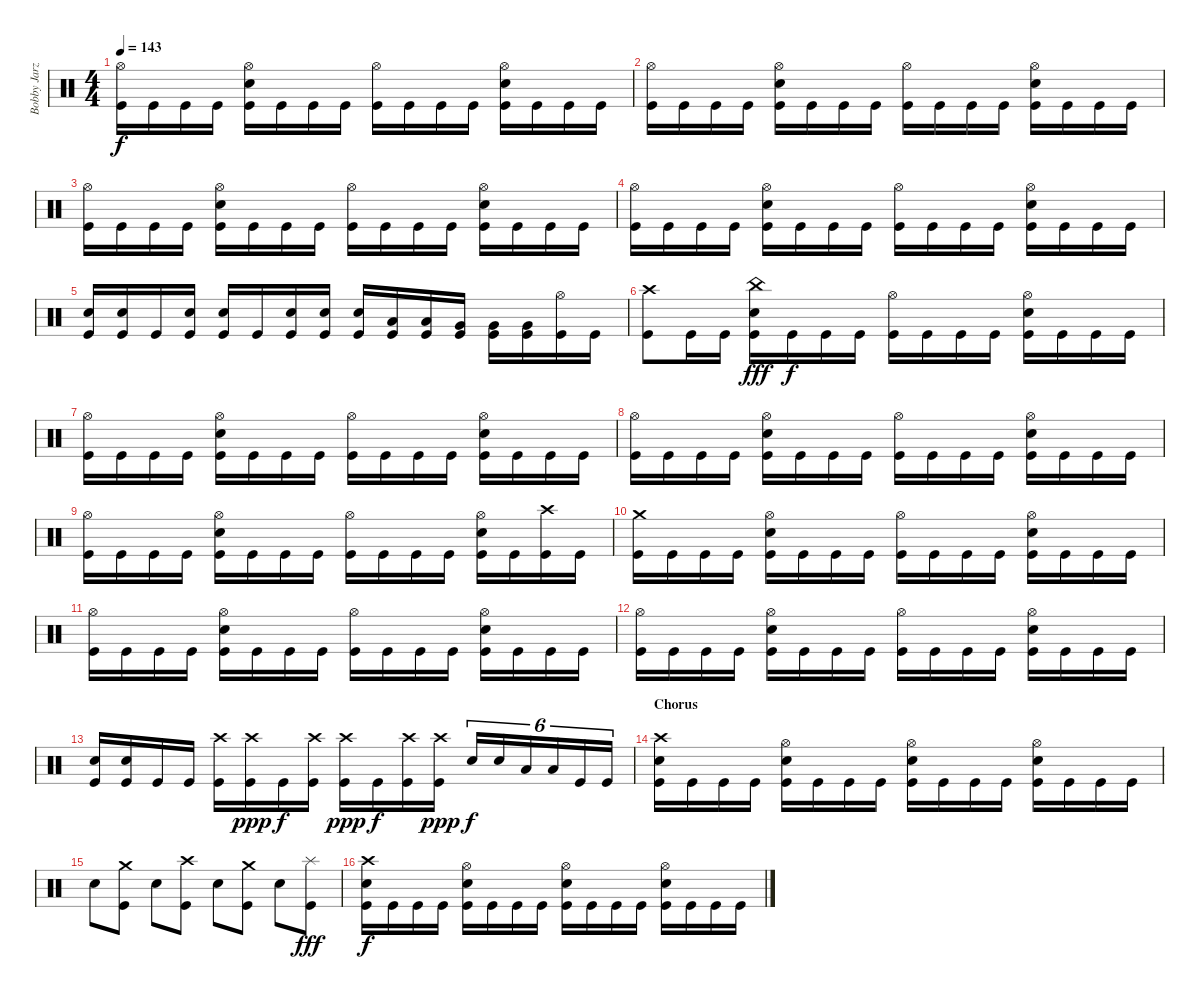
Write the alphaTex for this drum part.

\track ("Bobby Jarzombek" "Bobby Jarz") {instrument percussion}
\staff {score}
\articulation defaults
\ts (4 4)
\tempo 143
\clef neutral
\ks c
("Hi-Hat (open)" "Kick (hit)").16{dy f} "Kick (hit)".16 "Kick (hit)".16 "Kick (hit)".16 ("Hi-Hat (open)" "Electric Snare (hit)" "Kick (hit)").16 "Kick (hit)".16 "Kick (hit)".16 "Kick (hit)".16 ("Hi-Hat (open)" "Kick (hit)").16 "Kick (hit)".16 "Kick (hit)".16 "Kick (hit)".16 ("Hi-Hat (open)" "Electric Snare (hit)" "Kick (hit)").16 "Kick (hit)".16 "Kick (hit)".16 "Kick (hit)".16 |
("Hi-Hat (open)" "Kick (hit)").16 "Kick (hit)".16 "Kick (hit)".16 "Kick (hit)".16 ("Hi-Hat (open)" "Electric Snare (hit)" "Kick (hit)").16 "Kick (hit)".16 "Kick (hit)".16 "Kick (hit)".16 ("Hi-Hat (open)" "Kick (hit)").16 "Kick (hit)".16 "Kick (hit)".16 "Kick (hit)".16 ("Hi-Hat (open)" "Electric Snare (hit)" "Kick (hit)").16 "Kick (hit)".16 "Kick (hit)".16 "Kick (hit)".16 |
("Hi-Hat (open)" "Kick (hit)").16 "Kick (hit)".16 "Kick (hit)".16 "Kick (hit)".16 ("Hi-Hat (open)" "Electric Snare (hit)" "Kick (hit)").16 "Kick (hit)".16 "Kick (hit)".16 "Kick (hit)".16 ("Hi-Hat (open)" "Kick (hit)").16 "Kick (hit)".16 "Kick (hit)".16 "Kick (hit)".16 ("Hi-Hat (open)" "Electric Snare (hit)" "Kick (hit)").16 "Kick (hit)".16 "Kick (hit)".16 "Kick (hit)".16 |
("Hi-Hat (open)" "Kick (hit)").16 "Kick (hit)".16 "Kick (hit)".16 "Kick (hit)".16 ("Hi-Hat (open)" "Electric Snare (hit)" "Kick (hit)").16 "Kick (hit)".16 "Kick (hit)".16 "Kick (hit)".16 ("Hi-Hat (open)" "Kick (hit)").16 "Kick (hit)".16 "Kick (hit)".16 "Kick (hit)".16 ("Hi-Hat (open)" "Electric Snare (hit)" "Kick (hit)").16 "Kick (hit)".16 "Kick (hit)".16 "Kick (hit)".16 |
("Electric Snare (hit)" "Kick (hit)").16 ("Electric Snare (hit)" "Kick (hit)").16 "Kick (hit)".16 ("Electric Snare (hit)" "Kick (hit)").16 ("Electric Snare (hit)" "Kick (hit)").16 "Kick (hit)".16 ("Electric Snare (hit)" "Kick (hit)").16 ("Electric Snare (hit)" "Kick (hit)").16 ("Electric Snare (hit)" "Kick (hit)").16 ("Low Tom (hit)" "Kick (hit)").16 ("Low Tom (hit)" "Kick (hit)").16 ("Very Low Tom (hit)" "Kick (hit)").16 ("Very Low Tom (hit)" "Kick (hit)").16 ("Very Low Tom (hit)" "Kick (hit)").16 ("Hi-Hat (open)" "Kick (hit)").16 "Kick (hit)".16 |
("Crash high (hit)" "Kick (hit)").8 "Kick (hit)".16 "Kick (hit)".16 ("China (hit)" "Electric Snare (hit)" "Kick (hit)").16{dy fff} "Kick (hit)".16{dy f} "Kick (hit)".16 "Kick (hit)".16 ("Hi-Hat (open)" "Kick (hit)").16 "Kick (hit)".16 "Kick (hit)".16 "Kick (hit)".16 ("Hi-Hat (open)" "Electric Snare (hit)" "Kick (hit)").16 "Kick (hit)".16 "Kick (hit)".16 "Kick (hit)".16 |
("Hi-Hat (open)" "Kick (hit)").16 "Kick (hit)".16 "Kick (hit)".16 "Kick (hit)".16 ("Hi-Hat (open)" "Electric Snare (hit)" "Kick (hit)").16 "Kick (hit)".16 "Kick (hit)".16 "Kick (hit)".16 ("Hi-Hat (open)" "Kick (hit)").16 "Kick (hit)".16 "Kick (hit)".16 "Kick (hit)".16 ("Hi-Hat (open)" "Electric Snare (hit)" "Kick (hit)").16 "Kick (hit)".16 "Kick (hit)".16 "Kick (hit)".16 |
("Hi-Hat (open)" "Kick (hit)").16 "Kick (hit)".16 "Kick (hit)".16 "Kick (hit)".16 ("Hi-Hat (open)" "Electric Snare (hit)" "Kick (hit)").16 "Kick (hit)".16 "Kick (hit)".16 "Kick (hit)".16 ("Hi-Hat (open)" "Kick (hit)").16 "Kick (hit)".16 "Kick (hit)".16 "Kick (hit)".16 ("Hi-Hat (open)" "Electric Snare (hit)" "Kick (hit)").16 "Kick (hit)".16 "Kick (hit)".16 "Kick (hit)".16 |
("Hi-Hat (open)" "Kick (hit)").16 "Kick (hit)".16 "Kick (hit)".16 "Kick (hit)".16 ("Hi-Hat (open)" "Electric Snare (hit)" "Kick (hit)").16 "Kick (hit)".16 "Kick (hit)".16 "Kick (hit)".16 ("Hi-Hat (open)" "Kick (hit)").16 "Kick (hit)".16 "Kick (hit)".16 "Kick (hit)".16 ("Hi-Hat (open)" "Electric Snare (hit)" "Kick (hit)").16 "Kick (hit)".16 ("Crash high (hit)" "Kick (hit)").16 "Kick (hit)".16 |
("Crash medium (hit)" "Kick (hit)").16 "Kick (hit)".16 "Kick (hit)".16 "Kick (hit)".16 ("Hi-Hat (open)" "Electric Snare (hit)" "Kick (hit)").16 "Kick (hit)".16 "Kick (hit)".16 "Kick (hit)".16 ("Hi-Hat (open)" "Kick (hit)").16 "Kick (hit)".16 "Kick (hit)".16 "Kick (hit)".16 ("Hi-Hat (open)" "Electric Snare (hit)" "Kick (hit)").16 "Kick (hit)".16 "Kick (hit)".16 "Kick (hit)".16 |
("Hi-Hat (open)" "Kick (hit)").16 "Kick (hit)".16 "Kick (hit)".16 "Kick (hit)".16 ("Hi-Hat (open)" "Electric Snare (hit)" "Kick (hit)").16 "Kick (hit)".16 "Kick (hit)".16 "Kick (hit)".16 ("Hi-Hat (open)" "Kick (hit)").16 "Kick (hit)".16 "Kick (hit)".16 "Kick (hit)".16 ("Hi-Hat (open)" "Electric Snare (hit)" "Kick (hit)").16 "Kick (hit)".16 "Kick (hit)".16 "Kick (hit)".16 |
("Hi-Hat (open)" "Kick (hit)").16 "Kick (hit)".16 "Kick (hit)".16 "Kick (hit)".16 ("Hi-Hat (open)" "Electric Snare (hit)" "Kick (hit)").16 "Kick (hit)".16 "Kick (hit)".16 "Kick (hit)".16 ("Hi-Hat (open)" "Kick (hit)").16 "Kick (hit)".16 "Kick (hit)".16 "Kick (hit)".16 ("Hi-Hat (open)" "Electric Snare (hit)" "Kick (hit)").16 "Kick (hit)".16 "Kick (hit)".16 "Kick (hit)".16 |
("Electric Snare (hit)" "Kick (hit)").16 ("Electric Snare (hit)" "Kick (hit)").16 "Kick (hit)".16 "Kick (hit)".16 ("Crash high (hit)" "Kick (hit)").16 ("Crash high (hit)" "Kick (hit)").16{dy ppp} "Kick (hit)".16{dy f} ("Crash high (hit)" "Kick (hit)").16 ("Crash high (hit)" "Kick (hit)").16{dy ppp} "Kick (hit)".16{dy f} ("Crash high (hit)" "Kick (hit)").16 ("Crash high (hit)" "Kick (hit)").16{dy ppp} "Electric Snare (hit)".16{tu (6 4) dy f} "Electric Snare (hit)".16{tu (6 4)} "Low Tom (hit)".16{tu (6 4)} "Low Tom (hit)".16{tu (6 4)} "Kick (hit)".16{tu (6 4)} "Kick (hit)".16{tu (6 4)} |
\section ("" "Chorus")
("Crash high (hit)" "Electric Snare (hit)" "Kick (hit)").16 "Kick (hit)".16 "Kick (hit)".16 "Kick (hit)".16 ("Hi-Hat (open)" "Electric Snare (hit)" "Kick (hit)").16 "Kick (hit)".16 "Kick (hit)".16 "Kick (hit)".16 ("Hi-Hat (open)" "Electric Snare (hit)" "Kick (hit)").16 "Kick (hit)".16 "Kick (hit)".16 "Kick (hit)".16 ("Hi-Hat (open)" "Electric Snare (hit)" "Kick (hit)").16 "Kick (hit)".16 "Kick (hit)".16 "Kick (hit)".16 |
"Electric Snare (hit)".8 ("Crash medium (hit)" "Kick (hit)").8 "Electric Snare (hit)".8 ("Crash high (hit)" "Kick (hit)").8 "Electric Snare (hit)".8 ("Crash medium (hit)" "Kick (hit)").8 "Electric Snare (hit)".8 ("Splash (hit)" "Kick (hit)").8{dy fff} |
("Crash high (hit)" "Electric Snare (hit)" "Kick (hit)").16{dy f} "Kick (hit)".16 "Kick (hit)".16 "Kick (hit)".16 ("Hi-Hat (open)" "Electric Snare (hit)" "Kick (hit)").16 "Kick (hit)".16 "Kick (hit)".16 "Kick (hit)".16 ("Hi-Hat (open)" "Electric Snare (hit)" "Kick (hit)").16 "Kick (hit)".16 "Kick (hit)".16 "Kick (hit)".16 ("Hi-Hat (open)" "Electric Snare (hit)" "Kick (hit)").16 "Kick (hit)".16 "Kick (hit)".16 "Kick (hit)".16
